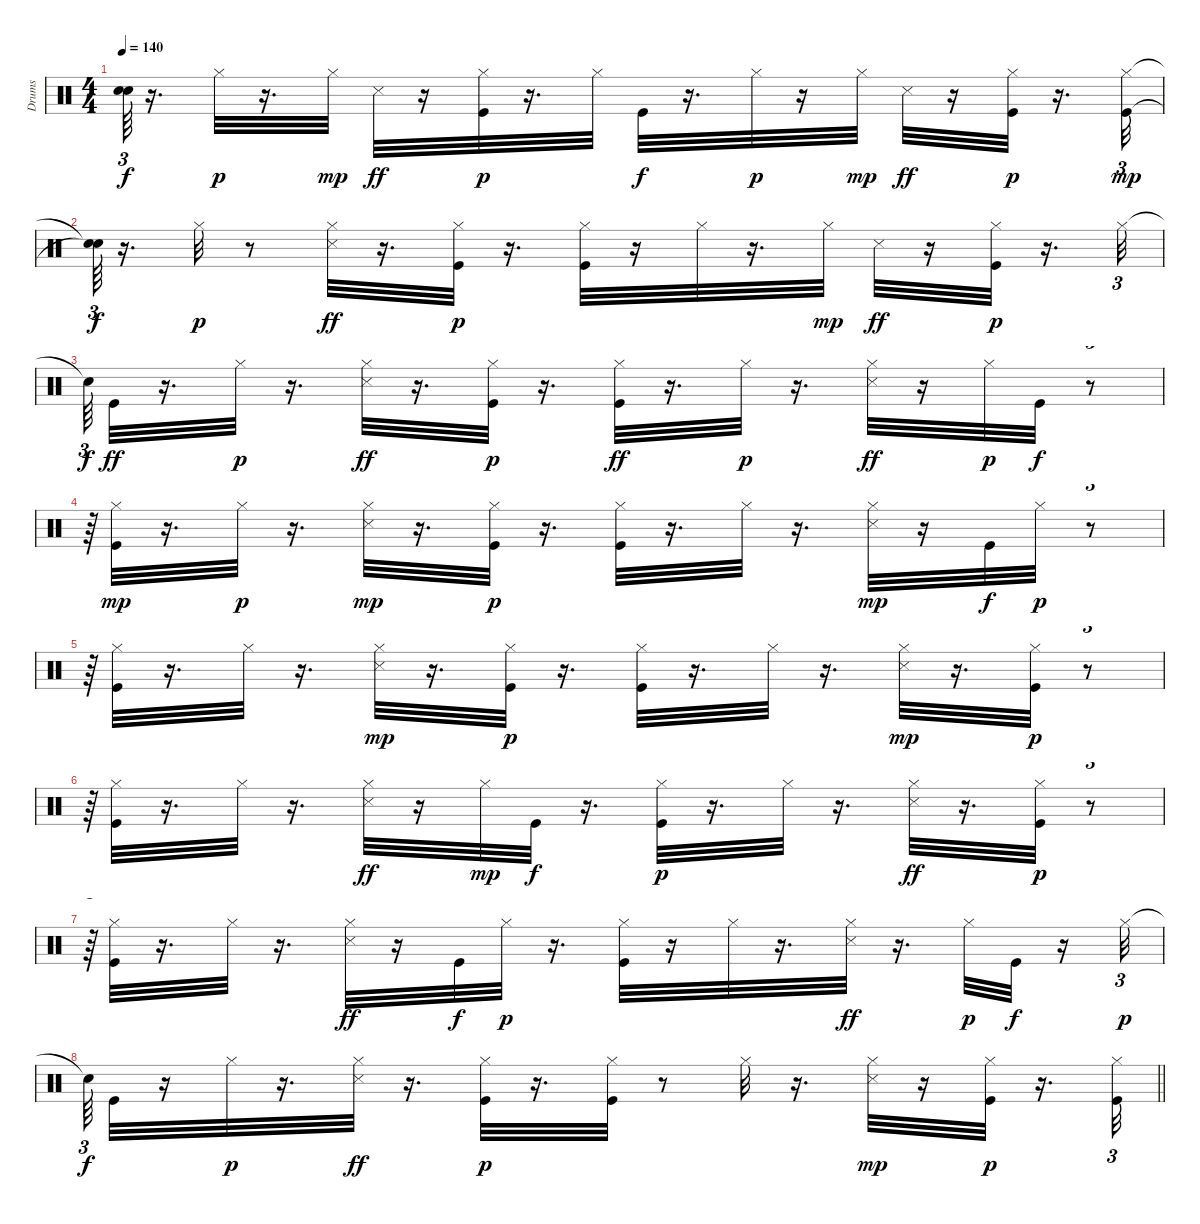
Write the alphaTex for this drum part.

\track ("Drums" "Drums") {instrument percussion}
\staff {score}
\articulation defaults
\ts (4 4)
\tempo 140
\clef neutral
\ks c
("Snare (hit)"{t} "Snare (hit)"{t}).64{tu (3 2) dy f} r.16{d} "Hi-Hat (closed)".32{dy p} r.16{d} "Hi-Hat (closed)".32{dy mp} "Snare (side stick) 3".32{dy ff} r.16 ("Kick (hit)" "Hi-Hat (closed)").32{dy p} r.16{d} "Hi-Hat (closed)".32 "Kick (hit)".32{dy f} r.16{d} "Hi-Hat (closed)".32{dy p} r.16 "Hi-Hat (closed)".32{dy mp} "Snare (side stick) 3".32{dy ff} r.16 ("Kick (hit)" "Hi-Hat (closed)").32{dy p} r.16{d} ("Kick (hit)" "Hi-Hat (closed)").32{tu (3 2) dy mp} |
("Snare (hit)"{t} "Snare (hit)"{t}).64{tu (3 2) dy f} r.16{d} "Hi-Hat (closed)".32{dy p} r.8 ("Hi-Hat (closed)" "Snare (side stick) 3").32{dy ff} r.16{d} ("Hi-Hat (closed)" "Kick (hit)").32{dy p} r.16{d} ("Hi-Hat (closed)" "Kick (hit)").32 r.16 "Hi-Hat (closed)".32 r.16{d} "Hi-Hat (closed)".32{dy mp} "Snare (side stick) 3".32{dy ff} r.16 ("Hi-Hat (closed)" "Kick (hit)").32{dy p} r.16{d} "Hi-Hat (closed)".32{tu (3 2)} |
"Snare (hit)"{t}.64{tu (3 2) dy f} "Kick (hit)".32{dy ff} r.16{d} "Hi-Hat (closed)".32{dy p} r.16{d} ("Hi-Hat (closed)" "Snare (side stick) 3").32{dy ff} r.16{d} ("Hi-Hat (closed)" "Kick (hit)").32{dy p} r.16{d} ("Hi-Hat (closed)" "Kick (hit)").32{dy ff} r.16{d} "Hi-Hat (closed)".32{dy p} r.16{d} ("Hi-Hat (closed)" "Snare (side stick) 3").32{dy ff} r.16 "Hi-Hat (closed)".32{dy p} "Kick (hit)".32{dy f} r.8{tu (3 2)} |
r.64{tu (3 2)} ("Hi-Hat (closed)" "Kick (hit)").32{dy mp} r.16{d} "Hi-Hat (closed)".32{dy p} r.16{d} ("Snare (side stick) 3" "Hi-Hat (closed)").32{dy mp} r.16{d} ("Kick (hit)" "Hi-Hat (closed)").32{dy p} r.16{d} ("Kick (hit)" "Hi-Hat (closed)").32 r.16{d} "Hi-Hat (closed)".32 r.16{d} ("Snare (side stick) 3" "Hi-Hat (closed)").32{dy mp} r.16 "Kick (hit)".32{dy f} "Hi-Hat (closed)".32{dy p} r.8{tu (3 2)} |
r.64{tu (3 2)} ("Hi-Hat (closed)" "Kick (hit)").32 r.16{d} "Hi-Hat (closed)".32 r.16{d} ("Hi-Hat (closed)" "Snare (side stick) 3").32{dy mp} r.16{d} ("Hi-Hat (closed)" "Kick (hit)").32{dy p} r.16{d} ("Hi-Hat (closed)" "Kick (hit)").32 r.16{d} "Hi-Hat (closed)".32 r.16{d} ("Snare (side stick) 3" "Hi-Hat (closed)").32{dy mp} r.16{d} ("Hi-Hat (closed)" "Kick (hit)").32{dy p} r.8{tu (3 2)} |
r.64{tu (3 2)} ("Hi-Hat (closed)" "Kick (hit)").32 r.16{d} "Hi-Hat (closed)".32 r.16{d} ("Hi-Hat (closed)" "Snare (side stick) 3").32{dy ff} r.16 "Hi-Hat (closed)".32{dy mp} "Kick (hit)".32{dy f} r.16{d} ("Hi-Hat (closed)" "Kick (hit)").32{dy p} r.16{d} "Hi-Hat (closed)".32 r.16{d} ("Hi-Hat (closed)" "Snare (side stick) 3").32{dy ff} r.16{d} ("Hi-Hat (closed)" "Kick (hit)").32{dy p} r.8{tu (3 2)} |
r.64{tu (3 2)} ("Hi-Hat (closed)" "Kick (hit)").32 r.16{d} "Hi-Hat (closed)".32 r.16{d} ("Hi-Hat (closed)" "Snare (side stick) 3").32{dy ff} r.16 "Kick (hit)".32{dy f} "Hi-Hat (closed)".32{dy p} r.16{d} ("Kick (hit)" "Hi-Hat (closed)").32 r.16 "Hi-Hat (closed)".32 r.16{d} ("Hi-Hat (closed)" "Snare (side stick) 3").32{dy ff} r.16{d} "Hi-Hat (closed)".32{dy p} "Kick (hit)".32{dy f} r.16 "Hi-Hat (closed)".32{tu (3 2) dy p} |
\barLineRight lightlight "Snare (hit)"{t}.64{tu (3 2) dy f} "Kick (hit)".32
r.16 "Hi-Hat (closed)".32{dy p} r.16{d} ("Hi-Hat (closed)" "Snare (side stick) 3").32{dy ff} r.16{d} ("Kick (hit)" "Hi-Hat (closed)").32{dy p} r.16{d} ("Kick (hit)" "Hi-Hat (closed)").32 r.8 "Hi-Hat (closed)".32 r.16{d} ("Hi-Hat (closed)" "Snare (side stick) 3").32{dy mp} r.16 ("Kick (hit)" "Hi-Hat (closed)").32{dy p} r.16{d} ("Hi-Hat (closed)" "Kick (hit)").32{tu (3 2)}
